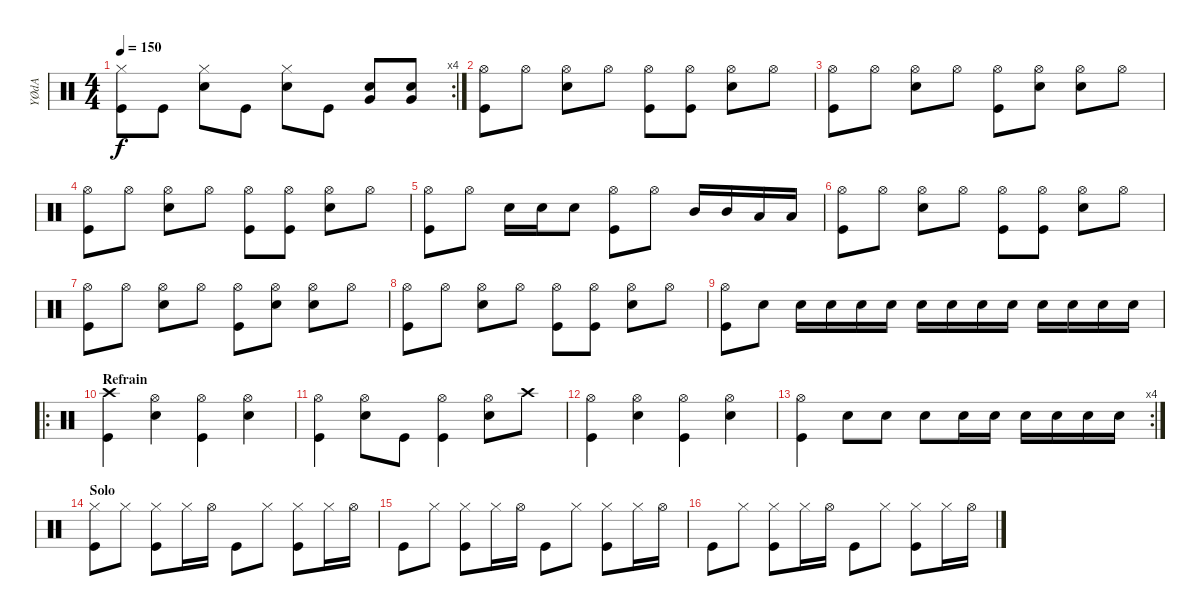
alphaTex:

\track ("YØdA" "YØdA") {instrument percussion}
\staff {score}
\articulation defaults
\rc 4
\ts (4 4)
\tempo 150
\clef neutral
\ks c
("Hi-Hat (closed)" "Kick (hit)").8{dy f} "Kick (hit)".8 ("Hi-Hat (closed)" "Electric Snare (hit)").8 "Kick (hit)".8 ("Hi-Hat (closed)" "Electric Snare (hit)").8 "Kick (hit)".8 ("Very Low Tom (hit)" "Electric Snare (hit)").8 ("Very Low Tom (hit)" "Electric Snare (hit)").8 |
("Hi-Hat (open)" "Kick (hit)").8 "Hi-Hat (open)".8 ("Hi-Hat (open)" "Electric Snare (hit)").8 "Hi-Hat (open)".8 ("Hi-Hat (open)" "Kick (hit)").8 ("Hi-Hat (open)" "Kick (hit)").8 ("Hi-Hat (open)" "Electric Snare (hit)").8 "Hi-Hat (open)".8 |
("Hi-Hat (open)" "Kick (hit)").8 "Hi-Hat (open)".8 ("Hi-Hat (open)" "Electric Snare (hit)").8 "Hi-Hat (open)".8 ("Hi-Hat (open)" "Kick (hit)").8 ("Hi-Hat (open)" "Electric Snare (hit)").8 ("Hi-Hat (open)" "Electric Snare (hit)").8 "Hi-Hat (open)".8 |
("Hi-Hat (open)" "Kick (hit)").8 "Hi-Hat (open)".8 ("Hi-Hat (open)" "Electric Snare (hit)").8 "Hi-Hat (open)".8 ("Hi-Hat (open)" "Kick (hit)").8 ("Hi-Hat (open)" "Kick (hit)").8 ("Hi-Hat (open)" "Electric Snare (hit)").8 "Hi-Hat (open)".8 |
("Hi-Hat (open)" "Kick (hit)").8 "Hi-Hat (open)".8 "Electric Snare (hit)".16 "Electric Snare (hit)".16 "Electric Snare (hit)".8 ("Hi-Hat (open)" "Kick (hit)").8 "Hi-Hat (open)".8 "Mid Tom (hit)".16 "Mid Tom (hit)".16 "Low Tom (hit)".16 "Low Tom (hit)".16 |
("Hi-Hat (open)" "Kick (hit)").8 "Hi-Hat (open)".8 ("Hi-Hat (open)" "Electric Snare (hit)").8 "Hi-Hat (open)".8 ("Hi-Hat (open)" "Kick (hit)").8 ("Hi-Hat (open)" "Kick (hit)").8 ("Hi-Hat (open)" "Electric Snare (hit)").8 "Hi-Hat (open)".8 |
("Hi-Hat (open)" "Kick (hit)").8 "Hi-Hat (open)".8 ("Hi-Hat (open)" "Electric Snare (hit)").8 "Hi-Hat (open)".8 ("Hi-Hat (open)" "Kick (hit)").8 ("Hi-Hat (open)" "Electric Snare (hit)").8 ("Hi-Hat (open)" "Electric Snare (hit)").8 "Hi-Hat (open)".8 |
("Hi-Hat (open)" "Kick (hit)").8 "Hi-Hat (open)".8 ("Hi-Hat (open)" "Electric Snare (hit)").8 "Hi-Hat (open)".8 ("Hi-Hat (open)" "Kick (hit)").8 ("Hi-Hat (open)" "Kick (hit)").8 ("Hi-Hat (open)" "Electric Snare (hit)").8 "Hi-Hat (open)".8 |
("Hi-Hat (open)" "Kick (hit)").8 "Electric Snare (hit)".8 "Electric Snare (hit)".16 "Electric Snare (hit)".16 "Electric Snare (hit)".16 "Electric Snare (hit)".16 "Electric Snare (hit)".16 "Electric Snare (hit)".16 "Electric Snare (hit)".16 "Electric Snare (hit)".16 "Electric Snare (hit)".16 "Electric Snare (hit)".16 "Electric Snare (hit)".16 "Electric Snare (hit)".16 |
\ro
\section ("" "Refrain")
("Crash high (hit)" "Kick (hit)").4 ("Hi-Hat (open)" "Electric Snare (hit)").4 ("Hi-Hat (open)" "Kick (hit)").4 ("Hi-Hat (open)" "Electric Snare (hit)").4 |
("Hi-Hat (open)" "Kick (hit)").4 ("Hi-Hat (open)" "Electric Snare (hit)").8 "Kick (hit)".8 ("Hi-Hat (open)" "Kick (hit)").4 ("Hi-Hat (open)" "Electric Snare (hit)").8 "Crash high (hit)".8 |
("Hi-Hat (open)" "Kick (hit)").4 ("Hi-Hat (open)" "Electric Snare (hit)").4 ("Hi-Hat (open)" "Kick (hit)").4 ("Hi-Hat (open)" "Electric Snare (hit)").4 |
\rc 4
("Hi-Hat (open)" "Kick (hit)").4 "Electric Snare (hit)".8 "Electric Snare (hit)".8 "Electric Snare (hit)".8 "Electric Snare (hit)".16 "Electric Snare (hit)".16 "Electric Snare (hit)".16 "Electric Snare (hit)".16 "Electric Snare (hit)".16 "Electric Snare (hit)".16 |
\section ("" "Solo")
("Hi-Hat (closed)" "Kick (hit)").8 "Hi-Hat (closed)".8 ("Hi-Hat (closed)" "Kick (hit)").8 "Hi-Hat (closed)".16 "Hi-Hat (open)".16 "Kick (hit)".8 "Hi-Hat (closed)".8 ("Hi-Hat (closed)" "Kick (hit)").8 "Hi-Hat (closed)".16 "Hi-Hat (open)".16 |
"Kick (hit)".8 "Hi-Hat (closed)".8 ("Hi-Hat (closed)" "Kick (hit)").8 "Hi-Hat (closed)".16 "Hi-Hat (open)".16 "Kick (hit)".8 "Hi-Hat (closed)".8 ("Hi-Hat (closed)" "Kick (hit)").8 "Hi-Hat (closed)".16 "Hi-Hat (open)".16 |
"Kick (hit)".8 "Hi-Hat (closed)".8 ("Hi-Hat (closed)" "Kick (hit)").8 "Hi-Hat (closed)".16 "Hi-Hat (open)".16 "Kick (hit)".8 "Hi-Hat (closed)".8 ("Hi-Hat (closed)" "Kick (hit)").8 "Hi-Hat (closed)".16 "Hi-Hat (open)".16
